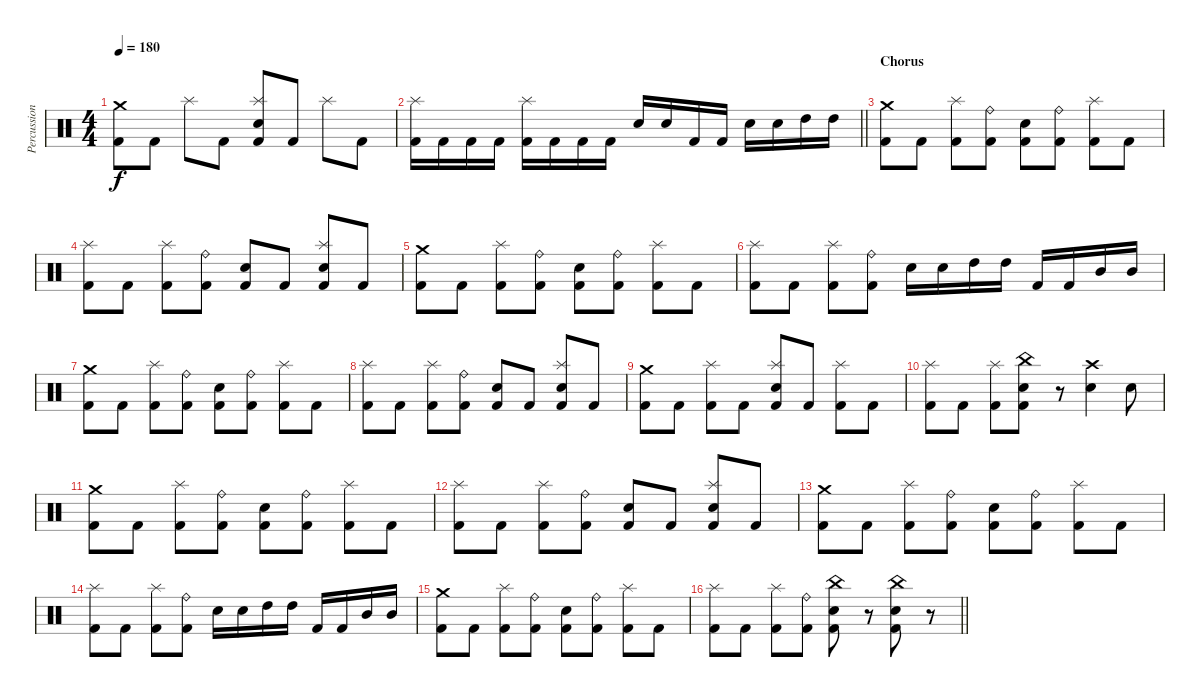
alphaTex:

\track ("Percussion" "Percussion") {instrument percussion}
\staff {score}
\articulation defaults
\ts (4 4)
\tempo 180
\clef neutral
\ks c
("Crash medium (hit)" "Kick (hit) 2").8{dy f} "Kick (hit) 2".8 "Splash (hit)".8 "Kick (hit) 2".8 ("Splash (hit)" "Electric Snare (hit)" "Kick (hit) 2").8 "Kick (hit) 2".8 "Splash (hit)".8 "Kick (hit) 2".8 |
\barLineRight lightlight
("Splash (hit)" "Kick (hit) 2").16 "Kick (hit) 2".16 "Kick (hit) 2".16 "Kick (hit) 2".16 ("Splash (hit)" "Kick (hit) 2").16 "Kick (hit) 2".16 "Kick (hit) 2".16 "Kick (hit) 2".16 "Electric Snare (hit)".16 "Electric Snare (hit)".16 "Kick (hit) 2".16 "Kick (hit) 2".16 "Electric Snare (hit)".16 "Electric Snare (hit)".16 "High Tom (hit)".16 "High Tom (hit)".16 |
\section ("" "Chorus")
("Crash medium (hit)" "Kick (hit) 2").8 "Kick (hit) 2".8 ("Splash (hit)" "Kick (hit) 2").8 ("Ride (bell)" "Kick (hit) 2").8 ("Electric Snare (hit)" "Kick (hit) 2").8 ("Ride (bell)" "Kick (hit) 2").8 ("Splash (hit)" "Kick (hit) 2").8 "Kick (hit) 2".8 |
("Splash (hit)" "Kick (hit) 2").8 "Kick (hit) 2".8 ("Splash (hit)" "Kick (hit) 2").8 ("Ride (bell)" "Kick (hit) 2").8 ("Electric Snare (hit)" "Kick (hit) 2").8 "Kick (hit) 2".8 ("Splash (hit)" "Electric Snare (hit)" "Kick (hit) 2").8 "Kick (hit) 2".8 |
("Crash medium (hit)" "Kick (hit) 2").8 "Kick (hit) 2".8 ("Splash (hit)" "Kick (hit) 2").8 ("Ride (bell)" "Kick (hit) 2").8 ("Electric Snare (hit)" "Kick (hit) 2").8 ("Ride (bell)" "Kick (hit) 2").8 ("Splash (hit)" "Kick (hit) 2").8 "Kick (hit) 2".8 |
("Splash (hit)" "Kick (hit) 2").8 "Kick (hit) 2".8 ("Splash (hit)" "Kick (hit) 2").8 ("Ride (bell)" "Kick (hit) 2").8 "Electric Snare (hit)".16 "Electric Snare (hit)".16 "High Tom (hit)".16 "High Tom (hit)".16 "Kick (hit) 2".16 "Kick (hit) 2".16 "Mid Tom (hit)".16 "Mid Tom (hit)".16 |
("Crash medium (hit)" "Kick (hit) 2").8 "Kick (hit) 2".8 ("Splash (hit)" "Kick (hit) 2").8 ("Ride (bell)" "Kick (hit) 2").8 ("Electric Snare (hit)" "Kick (hit) 2").8 ("Ride (bell)" "Kick (hit) 2").8 ("Splash (hit)" "Kick (hit) 2").8 "Kick (hit) 2".8 |
("Splash (hit)" "Kick (hit) 2").8 "Kick (hit) 2".8 ("Splash (hit)" "Kick (hit) 2").8 ("Ride (bell)" "Kick (hit) 2").8 ("Electric Snare (hit)" "Kick (hit) 2").8 "Kick (hit) 2".8 ("Splash (hit)" "Electric Snare (hit)" "Kick (hit) 2").8 "Kick (hit) 2".8 |
("Crash medium (hit)" "Kick (hit) 2").8 "Kick (hit) 2".8 ("Splash (hit)" "Kick (hit) 2").8 "Kick (hit) 2".8 ("Splash (hit)" "Electric Snare (hit)" "Kick (hit) 2").8 "Kick (hit) 2".8 ("Splash (hit)" "Kick (hit) 2").8 "Kick (hit) 2".8 |
("Splash (hit)" "Kick (hit) 2").8 "Kick (hit) 2".8 ("Splash (hit)" "Kick (hit) 2").8 ("China (hit)" "Electric Snare (hit)" "Kick (hit) 2").8 r.8 ("Crash high (hit)" "Electric Snare (hit)").4 "Electric Snare (hit)".8 |
("Crash medium (hit)" "Kick (hit) 2").8 "Kick (hit) 2".8 ("Splash (hit)" "Kick (hit) 2").8 ("Ride (bell)" "Kick (hit) 2").8 ("Electric Snare (hit)" "Kick (hit) 2").8 ("Ride (bell)" "Kick (hit) 2").8 ("Splash (hit)" "Kick (hit) 2").8 "Kick (hit) 2".8 |
("Splash (hit)" "Kick (hit) 2").8 "Kick (hit) 2".8 ("Splash (hit)" "Kick (hit) 2").8 ("Ride (bell)" "Kick (hit) 2").8 ("Electric Snare (hit)" "Kick (hit) 2").8 "Kick (hit) 2".8 ("Splash (hit)" "Electric Snare (hit)" "Kick (hit) 2").8 "Kick (hit) 2".8 |
("Crash medium (hit)" "Kick (hit) 2").8 "Kick (hit) 2".8 ("Splash (hit)" "Kick (hit) 2").8 ("Ride (bell)" "Kick (hit) 2").8 ("Electric Snare (hit)" "Kick (hit) 2").8 ("Ride (bell)" "Kick (hit) 2").8 ("Splash (hit)" "Kick (hit) 2").8 "Kick (hit) 2".8 |
("Splash (hit)" "Kick (hit) 2").8 "Kick (hit) 2".8 ("Splash (hit)" "Kick (hit) 2").8 ("Ride (bell)" "Kick (hit) 2").8 "Electric Snare (hit)".16 "Electric Snare (hit)".16 "High Tom (hit)".16 "High Tom (hit)".16 "Kick (hit) 2".16 "Kick (hit) 2".16 "Mid Tom (hit)".16 "Mid Tom (hit)".16 |
("Crash medium (hit)" "Kick (hit) 2").8 "Kick (hit) 2".8 ("Splash (hit)" "Kick (hit) 2").8 ("Ride (bell)" "Kick (hit) 2").8 ("Electric Snare (hit)" "Kick (hit) 2").8 ("Ride (bell)" "Kick (hit) 2").8 ("Splash (hit)" "Kick (hit) 2").8 "Kick (hit) 2".8 |
\barLineRight lightlight
("Splash (hit)" "Kick (hit) 2").8 "Kick (hit) 2".8 ("Splash (hit)" "Kick (hit) 2").8 ("Ride (bell)" "Kick (hit) 2").8 ("China (hit)" "Electric Snare (hit)" "Kick (hit) 2").8 r.8 ("China (hit)" "Electric Snare (hit)" "Kick (hit) 2").8 r.8
